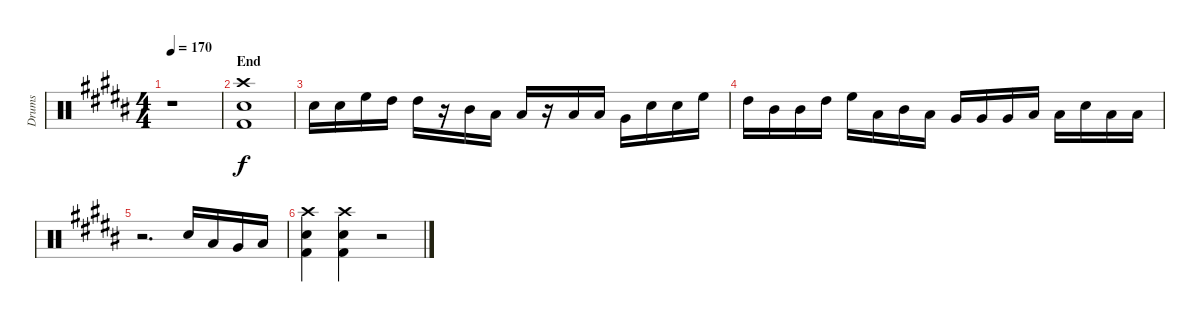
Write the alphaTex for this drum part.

\track ("Drums" "Drums") {instrument percussion}
\staff {score}
\articulation defaults
\ts (4 4)
\tempo 170
\clef neutral
\ks b
r.1{dy f} |
\section ("" "End")
("Crash high (hit)"{tr (49 64)} "Kick (hit) 2" "Electric Snare (hit)").1 |
"Electric Snare (hit)".16 "Electric Snare (hit)".16 "High Floor Tom (hit)".16 "High Tom (hit)".16 "High Tom (hit)".16 r.16 "Mid Tom (hit)".16 "Low Tom (hit)".16 "Low Tom (hit)".16 r.16 "Low Floor Tom (hit)".16 "Low Floor Tom (hit)".16 "Very Low Tom (hit)".16 "Electric Snare (hit)".16 "Electric Snare (hit)".16 "High Floor Tom (hit)".16 |
"High Tom (hit)".16 "Mid Tom (hit)".16 "Mid Tom (hit)".16 "High Tom (hit)".16 "High Floor Tom (hit)".16 "Low Tom (hit)".16 "Mid Tom (hit)".16 "Low Tom (hit)".16 "Very Low Tom (hit)".16 "Very Low Tom (hit)".16 "Very Low Tom (hit)".16 "Low Floor Tom (hit)".16 "Low Floor Tom (hit)".16 "Electric Snare (hit)".16 "Low Floor Tom (hit)".16 "Low Floor Tom (hit)".16 |
r.2{d} "Electric Snare (hit)".16 "Low Tom (hit)".16 "Very Low Tom (hit)".16 "Low Floor Tom (hit)".16 |
("Crash high (hit)" "Electric Snare (hit)" "Kick (hit) 2").4 ("Crash high (hit)" "Electric Snare (hit)" "Kick (hit) 2").4 r.2
